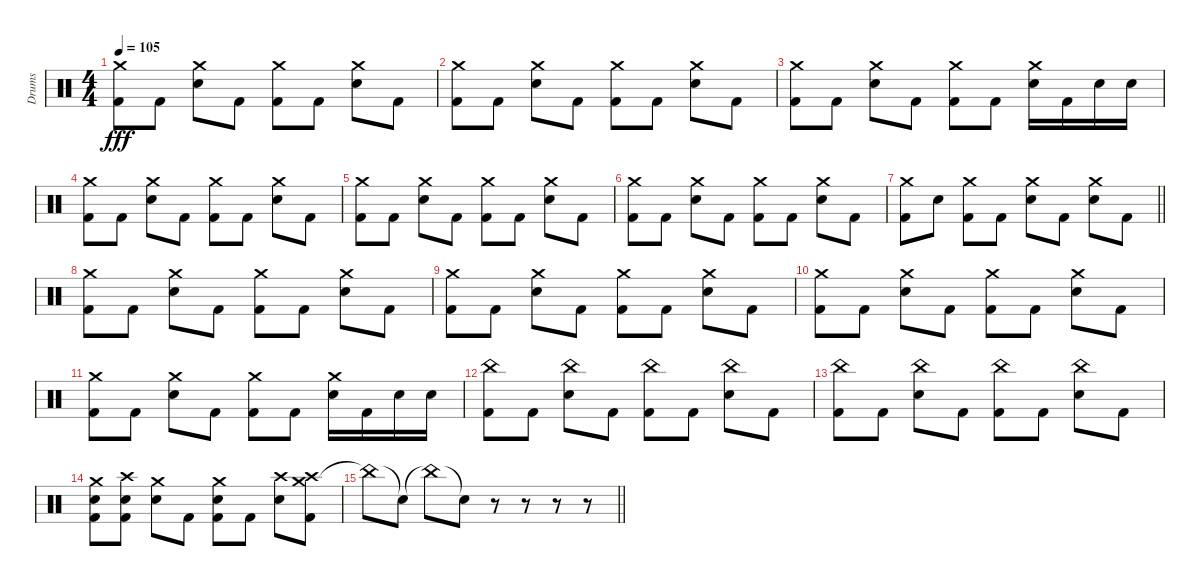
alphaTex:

\track ("Drums" "Drums") {instrument percussion}
\staff {score}
\articulation defaults
\ts (4 4)
\tempo 105
\clef neutral
\ks c
("Crash medium (hit)" "Kick (hit) 2").8{dy fff} "Kick (hit) 2".8 ("Crash medium (hit)" "Electric Snare (hit)").8 "Kick (hit) 2".8 ("Crash medium (hit)" "Kick (hit) 2").8 "Kick (hit) 2".8 ("Crash medium (hit)" "Electric Snare (hit)").8 "Kick (hit) 2".8 |
("Crash medium (hit)" "Kick (hit) 2").8 "Kick (hit) 2".8 ("Crash medium (hit)" "Electric Snare (hit)").8 "Kick (hit) 2".8 ("Crash medium (hit)" "Kick (hit) 2").8 "Kick (hit) 2".8 ("Crash medium (hit)" "Electric Snare (hit)").8 "Kick (hit) 2".8 |
("Crash medium (hit)" "Kick (hit) 2").8 "Kick (hit) 2".8 ("Crash medium (hit)" "Electric Snare (hit)").8 "Kick (hit) 2".8 ("Crash medium (hit)" "Kick (hit) 2").8 "Kick (hit) 2".8 ("Crash medium (hit)" "Electric Snare (hit)").16 "Kick (hit) 2".16 "Electric Snare (hit)".16 "Electric Snare (hit)".16 |
("Crash medium (hit)" "Kick (hit) 2").8 "Kick (hit) 2".8 ("Crash medium (hit)" "Electric Snare (hit)").8 "Kick (hit) 2".8 ("Crash medium (hit)" "Kick (hit) 2").8 "Kick (hit) 2".8 ("Crash medium (hit)" "Electric Snare (hit)").8 "Kick (hit) 2".8 |
("Crash medium (hit)" "Kick (hit) 2").8 "Kick (hit) 2".8 ("Crash medium (hit)" "Electric Snare (hit)").8 "Kick (hit) 2".8 ("Crash medium (hit)" "Kick (hit) 2").8 "Kick (hit) 2".8 ("Crash medium (hit)" "Electric Snare (hit)").8 "Kick (hit) 2".8 |
("Crash medium (hit)" "Kick (hit) 2").8 "Kick (hit) 2".8 ("Crash medium (hit)" "Electric Snare (hit)").8 "Kick (hit) 2".8 ("Crash medium (hit)" "Kick (hit) 2").8 "Kick (hit) 2".8 ("Crash medium (hit)" "Electric Snare (hit)").8 "Kick (hit) 2".8 |
\barLineRight lightlight
("Crash medium (hit)" "Kick (hit) 2").8 "Electric Snare (hit)".8 ("Crash medium (hit)" "Kick (hit) 2").8 "Kick (hit) 2".8 ("Crash medium (hit)" "Electric Snare (hit)").8 "Kick (hit) 2".8 ("Crash medium (hit)" "Electric Snare (hit)").8 "Kick (hit) 2".8 |
("Crash medium (hit)" "Kick (hit) 2").8 "Kick (hit) 2".8 ("Crash medium (hit)" "Electric Snare (hit)").8 "Kick (hit) 2".8 ("Crash medium (hit)" "Kick (hit) 2").8 "Kick (hit) 2".8 ("Crash medium (hit)" "Electric Snare (hit)").8 "Kick (hit) 2".8 |
("Crash medium (hit)" "Kick (hit) 2").8 "Kick (hit) 2".8 ("Crash medium (hit)" "Electric Snare (hit)").8 "Kick (hit) 2".8 ("Crash medium (hit)" "Kick (hit) 2").8 "Kick (hit) 2".8 ("Crash medium (hit)" "Electric Snare (hit)").8 "Kick (hit) 2".8 |
("Crash medium (hit)" "Kick (hit) 2").8 "Kick (hit) 2".8 ("Crash medium (hit)" "Electric Snare (hit)").8 "Kick (hit) 2".8 ("Crash medium (hit)" "Kick (hit) 2").8 "Kick (hit) 2".8 ("Crash medium (hit)" "Electric Snare (hit)").8 "Kick (hit) 2".8 |
("Crash medium (hit)" "Kick (hit) 2").8 "Kick (hit) 2".8 ("Crash medium (hit)" "Electric Snare (hit)").8 "Kick (hit) 2".8 ("Crash medium (hit)" "Kick (hit) 2").8 "Kick (hit) 2".8 ("Crash medium (hit)" "Electric Snare (hit)").16 "Kick (hit) 2".16 "Electric Snare (hit)".16 "Electric Snare (hit)".16 |
("China (hit)" "Kick (hit) 2").8 "Kick (hit) 2".8 ("China (hit)" "Electric Snare (hit)").8 "Kick (hit) 2".8 ("China (hit)" "Kick (hit) 2").8 "Kick (hit) 2".8 ("China (hit)" "Electric Snare (hit)").8 "Kick (hit) 2".8 |
("China (hit)" "Kick (hit) 2").8 "Kick (hit) 2".8 ("China (hit)" "Electric Snare (hit)").8 "Kick (hit) 2".8 ("China (hit)" "Kick (hit) 2").8 "Kick (hit) 2".8 ("China (hit)" "Electric Snare (hit)").8 "Kick (hit) 2".8 |
("Crash medium (hit)" "Electric Snare (hit)" "Kick (hit) 2").8 ("Crash high (hit)" "Electric Snare (hit)" "Kick (hit) 2").8 ("Crash medium (hit)" "Electric Snare (hit)").8 "Kick (hit) 2".8 ("Crash medium (hit)" "Electric Snare (hit)" "Kick (hit) 2").8 "Kick (hit) 2".8 ("Crash high (hit)" "Electric Snare (hit)").8 ("Crash medium (hit)" "Crash high (hit)" "Kick (hit) 2").8 |
\barLineRight lightlight "China (hit)"{t}.8 "Snare (hit)"{t}.8 "China (hit)"{t}.8 "Snare (hit)"{t}.8
r.8 r.8 r.8 r.8
